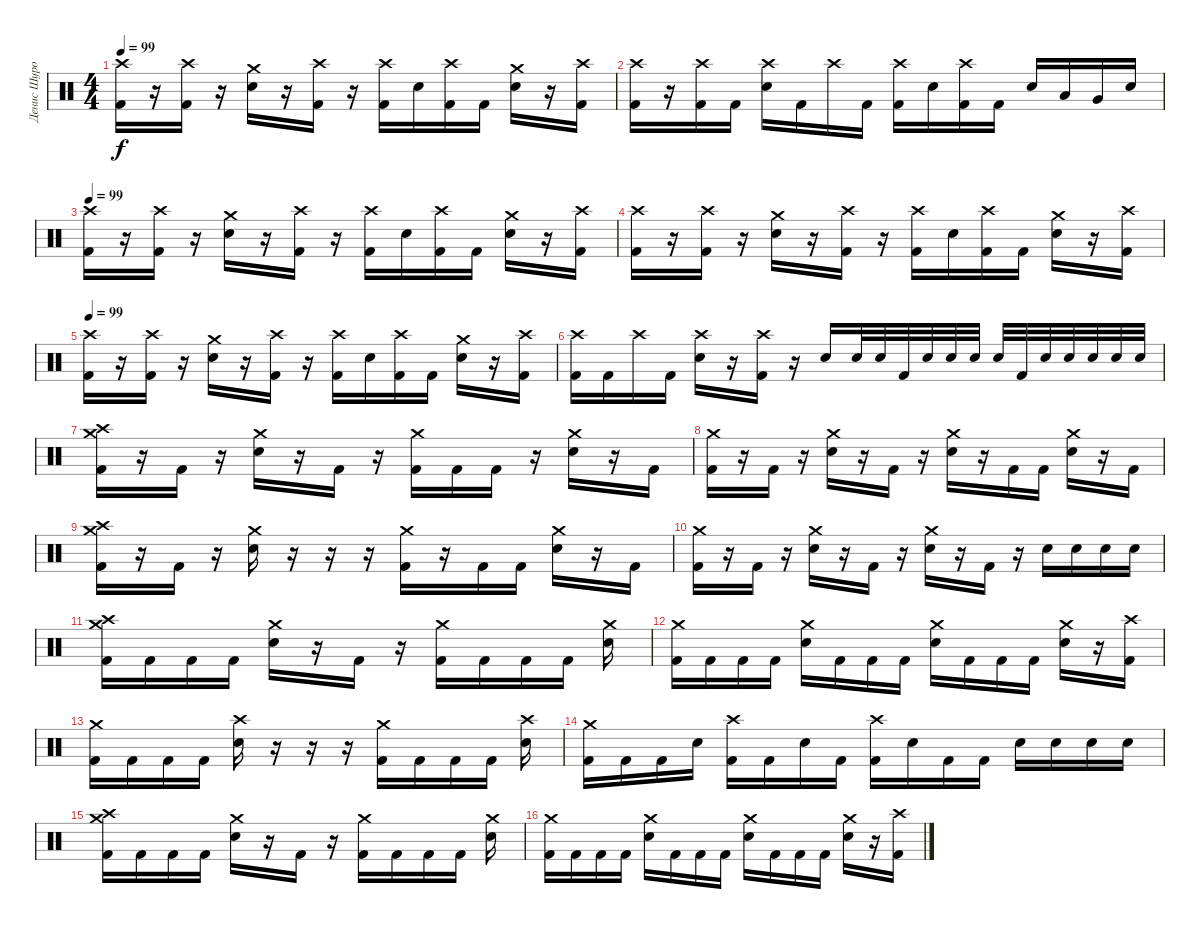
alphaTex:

\track ("Денис Шуров" "Денис Шуро") {instrument percussion}
\staff {score}
\articulation defaults
\ts (4 4)
\tempo 99
\clef neutral
\ks c
("Crash high (hit)" "Kick (hit) 2").16{dy f} r.16 ("Crash high (hit)" "Kick (hit) 2").16 r.16 ("Crash medium (hit)" "Electric Snare (hit)").16 r.16 ("Crash high (hit)" "Kick (hit) 2").16 r.16 ("Crash high (hit)" "Kick (hit) 2").16 "Electric Snare (hit)".16 ("Crash high (hit)" "Kick (hit) 2").16 "Kick (hit) 2".16 ("Crash medium (hit)" "Electric Snare (hit)").16 r.16 ("Crash high (hit)" "Kick (hit) 2").16 |
("Crash high (hit)" "Kick (hit) 2").16 r.16 ("Crash high (hit)" "Kick (hit) 2").16 "Kick (hit) 2".16 ("Crash high (hit)" "Electric Snare (hit)").16 "Kick (hit) 2".16 "Crash high (hit)".16 "Kick (hit) 2".16 ("Crash high (hit)" "Kick (hit) 2").16 "Electric Snare (hit)".16 ("Crash high (hit)" "Kick (hit) 2").16 "Kick (hit) 2".16 "Electric Snare (hit)".16 "Low Tom (hit)".16 "Very Low Tom (hit)".16 "Electric Snare (hit)".16 |
\tempo 99
("Crash high (hit)" "Kick (hit) 2").16 r.16 ("Crash high (hit)" "Kick (hit) 2").16 r.16 ("Crash medium (hit)" "Electric Snare (hit)").16 r.16 ("Crash high (hit)" "Kick (hit) 2").16 r.16 ("Crash high (hit)" "Kick (hit) 2").16 "Electric Snare (hit)".16 ("Crash high (hit)" "Kick (hit) 2").16 "Kick (hit) 2".16 ("Crash medium (hit)" "Electric Snare (hit)").16 r.16 ("Crash high (hit)" "Kick (hit) 2").16 |
("Crash high (hit)" "Kick (hit) 2").16 r.16 ("Crash high (hit)" "Kick (hit) 2").16 r.16 ("Crash medium (hit)" "Electric Snare (hit)").16 r.16 ("Crash high (hit)" "Kick (hit) 2").16 r.16 ("Crash high (hit)" "Kick (hit) 2").16 "Electric Snare (hit)".16 ("Crash high (hit)" "Kick (hit) 2").16 "Kick (hit) 2".16 ("Crash medium (hit)" "Electric Snare (hit)").16 r.16 ("Crash high (hit)" "Kick (hit) 2").16 |
\tempo 99
("Crash high (hit)" "Kick (hit) 2").16 r.16 ("Crash high (hit)" "Kick (hit) 2").16 r.16 ("Crash medium (hit)" "Electric Snare (hit)").16 r.16 ("Crash high (hit)" "Kick (hit) 2").16 r.16 ("Crash high (hit)" "Kick (hit) 2").16 "Electric Snare (hit)".16 ("Crash high (hit)" "Kick (hit) 2").16 "Kick (hit) 2".16 ("Crash medium (hit)" "Electric Snare (hit)").16 r.16 ("Crash high (hit)" "Kick (hit) 2").16 |
("Crash high (hit)" "Kick (hit) 2").16 "Kick (hit) 2".16 "Crash high (hit)".16 "Kick (hit) 2".16 ("Crash high (hit)" "Electric Snare (hit)").16 r.16 ("Crash high (hit)" "Kick (hit) 2").16 r.16 "Electric Snare (hit)".16 "Electric Snare (hit)".32 "Electric Snare (hit)".32 "Kick (hit) 2".32 "Electric Snare (hit)".32 "Electric Snare (hit)".32 "Electric Snare (hit)".32 "Electric Snare (hit)".32 "Kick (hit) 2".32 "Electric Snare (hit)".32 "Electric Snare (hit)".32 "Electric Snare (hit)".32 "Electric Snare (hit)".32 "Electric Snare (hit)".32 |
("Crash high (hit)" "Crash medium (hit)" "Kick (hit) 2").16 r.16 "Kick (hit) 2".16 r.16 ("Crash medium (hit)" "Electric Snare (hit)").16 r.16 "Kick (hit) 2".16 r.16 ("Crash medium (hit)" "Kick (hit) 2").16 "Kick (hit) 2".16 "Kick (hit) 2".16 r.16 ("Crash medium (hit)" "Electric Snare (hit)").16 r.16 "Kick (hit) 2".16 |
("Crash medium (hit)" "Kick (hit) 2").16 r.16 "Kick (hit) 2".16 r.16 ("Crash medium (hit)" "Electric Snare (hit)").16 r.16 "Kick (hit) 2".16 r.16 ("Crash medium (hit)" "Electric Snare (hit)").16 r.16 "Kick (hit) 2".16 "Kick (hit) 2".16 ("Crash medium (hit)" "Electric Snare (hit)").16 r.16 "Kick (hit) 2".16 |
("Crash high (hit)" "Crash medium (hit)" "Kick (hit) 2").16 r.16 "Kick (hit) 2".16 r.16 ("Crash medium (hit)" "Electric Snare (hit)").16 r.16 r.16 r.16 ("Crash medium (hit)" "Kick (hit) 2").16 r.16 "Kick (hit) 2".16 "Kick (hit) 2".16 ("Crash medium (hit)" "Electric Snare (hit)").16 r.16 "Kick (hit) 2".16 |
("Crash medium (hit)" "Kick (hit) 2").16 r.16 "Kick (hit) 2".16 r.16 ("Crash medium (hit)" "Electric Snare (hit)").16 r.16 "Kick (hit) 2".16 r.16 ("Crash medium (hit)" "Electric Snare (hit)").16 r.16 "Kick (hit) 2".16 r.16 "Electric Snare (hit)".16 "Electric Snare (hit)".16 "Electric Snare (hit)".16 "Electric Snare (hit)".16 |
("Crash high (hit)" "Crash medium (hit)" "Kick (hit) 2").16 "Kick (hit) 2".16 "Kick (hit) 2".16 "Kick (hit) 2".16 ("Crash medium (hit)" "Electric Snare (hit)").16 r.16 "Kick (hit) 2".16 r.16 ("Crash medium (hit)" "Kick (hit) 2").16 "Kick (hit) 2".16 "Kick (hit) 2".16 "Kick (hit) 2".16 ("Crash medium (hit)" "Electric Snare (hit)").16 |
("Crash medium (hit)" "Kick (hit) 2").16 "Kick (hit) 2".16 "Kick (hit) 2".16 "Kick (hit) 2".16 ("Crash medium (hit)" "Electric Snare (hit)").16 "Kick (hit) 2".16 "Kick (hit) 2".16 "Kick (hit) 2".16 ("Crash medium (hit)" "Electric Snare (hit)").16 "Kick (hit) 2".16 "Kick (hit) 2".16 "Kick (hit) 2".16 ("Crash medium (hit)" "Electric Snare (hit)").16 r.16 ("Crash high (hit)" "Kick (hit) 2").16 |
("Crash medium (hit)" "Kick (hit) 2").16 "Kick (hit) 2".16 "Kick (hit) 2".16 "Kick (hit) 2".16 ("Crash high (hit)" "Electric Snare (hit)").16 r.16 r.16 r.16 ("Crash medium (hit)" "Kick (hit) 2").16 "Kick (hit) 2".16 "Kick (hit) 2".16 "Kick (hit) 2".16 ("Crash high (hit)" "Electric Snare (hit)").16 |
("Crash medium (hit)" "Kick (hit) 2").16{volume 2} "Kick (hit) 2".16 "Kick (hit) 2".16 "Electric Snare (hit)".16 ("Crash high (hit)" "Kick (hit) 2").16 "Kick (hit) 2".16 "Electric Snare (hit)".16 "Kick (hit) 2".16 ("Crash high (hit)" "Kick (hit) 2").16 "Electric Snare (hit)".16 "Kick (hit) 2".16 "Kick (hit) 2".16 "Electric Snare (hit)".16 "Electric Snare (hit)".16 "Electric Snare (hit)".16 "Electric Snare (hit)".16 |
("Crash high (hit)" "Crash medium (hit)" "Kick (hit) 2").16 "Kick (hit) 2".16 "Kick (hit) 2".16 "Kick (hit) 2".16 ("Crash medium (hit)" "Electric Snare (hit)").16 r.16 "Kick (hit) 2".16 r.16 ("Crash medium (hit)" "Kick (hit) 2").16 "Kick (hit) 2".16 "Kick (hit) 2".16 "Kick (hit) 2".16 ("Crash medium (hit)" "Electric Snare (hit)").16 |
("Crash medium (hit)" "Kick (hit) 2").16 "Kick (hit) 2".16 "Kick (hit) 2".16 "Kick (hit) 2".16 ("Crash medium (hit)" "Electric Snare (hit)").16 "Kick (hit) 2".16 "Kick (hit) 2".16 "Kick (hit) 2".16 ("Crash medium (hit)" "Electric Snare (hit)").16 "Kick (hit) 2".16 "Kick (hit) 2".16 "Kick (hit) 2".16 ("Crash medium (hit)" "Electric Snare (hit)").16 r.16 ("Crash high (hit)" "Kick (hit) 2").16
